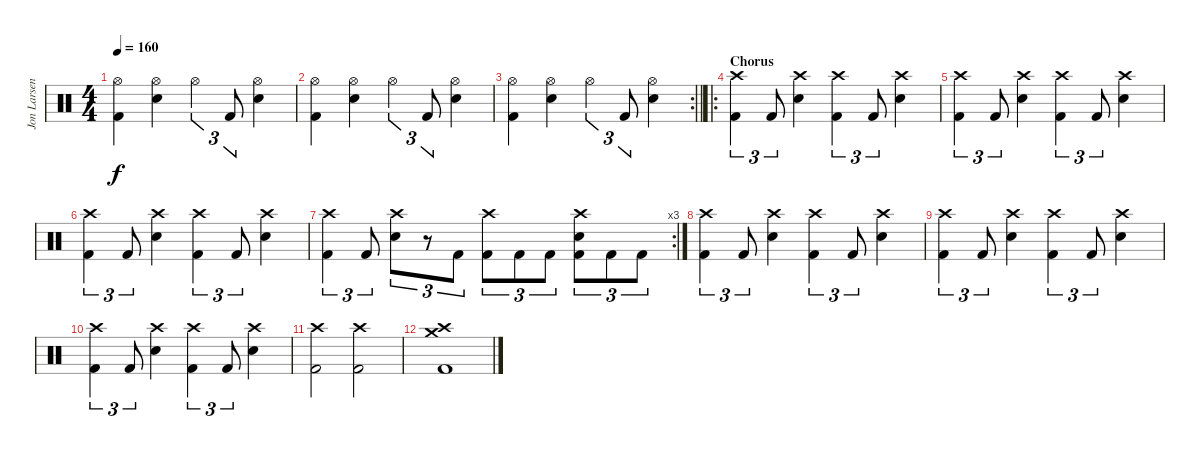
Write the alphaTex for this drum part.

\track ("Jon Larsen" "Jon Larsen") {instrument percussion}
\staff {score}
\articulation defaults
\ts (4 4)
\tempo 160
\clef neutral
\ks c
("Hi-Hat (open)" "Kick (hit) 2").4{dy f} ("Hi-Hat (open)" "Electric Snare (hit)").4 "Hi-Hat (open)".4{tu (3 2)} "Kick (hit) 2".8{tu (3 2)} ("Hi-Hat (open)" "Electric Snare (hit)").4 |
("Hi-Hat (open)" "Kick (hit) 2").4 ("Hi-Hat (open)" "Electric Snare (hit)").4 "Hi-Hat (open)".4{tu (3 2)} "Kick (hit) 2".8{tu (3 2)} ("Hi-Hat (open)" "Electric Snare (hit)").4 |
\rc 2
\barLineRight lightlight
("Hi-Hat (open)" "Kick (hit) 2").4 ("Hi-Hat (open)" "Electric Snare (hit)").4 "Hi-Hat (open)".4{tu (3 2)} "Kick (hit) 2".8{tu (3 2)} ("Hi-Hat (open)" "Electric Snare (hit)").4 |
\ro
\section ("" "Chorus")
("Crash high (hit)" "Kick (hit) 2").4{tu (3 2)} "Kick (hit) 2".8{tu (3 2)} ("Crash high (hit)" "Electric Snare (hit)").4 ("Crash high (hit)" "Kick (hit) 2").4{tu (3 2)} "Kick (hit) 2".8{tu (3 2)} ("Crash high (hit)" "Electric Snare (hit)").4 |
("Crash high (hit)" "Kick (hit) 2").4{tu (3 2)} "Kick (hit) 2".8{tu (3 2)} ("Crash high (hit)" "Electric Snare (hit)").4 ("Crash high (hit)" "Kick (hit) 2").4{tu (3 2)} "Kick (hit) 2".8{tu (3 2)} ("Crash high (hit)" "Electric Snare (hit)").4 |
("Crash high (hit)" "Kick (hit) 2").4{tu (3 2)} "Kick (hit) 2".8{tu (3 2)} ("Crash high (hit)" "Electric Snare (hit)").4 ("Crash high (hit)" "Kick (hit) 2").4{tu (3 2)} "Kick (hit) 2".8{tu (3 2)} ("Crash high (hit)" "Electric Snare (hit)").4 |
\rc 3
("Crash high (hit)" "Kick (hit) 2").4{tu (3 2)} "Kick (hit) 2".8{tu (3 2)} ("Crash high (hit)" "Electric Snare (hit)").8{tu (3 2)} r.8{tu (3 2)} "Kick (hit) 2".8{tu (3 2)} ("Crash high (hit)" "Kick (hit) 2").8{tu (3 2)} "Kick (hit) 2".8{tu (3 2)} "Kick (hit) 2".8{tu (3 2)} ("Crash high (hit)" "Electric Snare (hit)" "Kick (hit) 2").8{tu (3 2)} "Kick (hit) 2".8{tu (3 2)} "Kick (hit) 2".8{tu (3 2)} |
("Crash high (hit)" "Kick (hit) 2").4{tu (3 2)} "Kick (hit) 2".8{tu (3 2)} ("Crash high (hit)" "Electric Snare (hit)").4 ("Crash high (hit)" "Kick (hit) 2").4{tu (3 2)} "Kick (hit) 2".8{tu (3 2)} ("Crash high (hit)" "Electric Snare (hit)").4 |
("Crash high (hit)" "Kick (hit) 2").4{tu (3 2)} "Kick (hit) 2".8{tu (3 2)} ("Crash high (hit)" "Electric Snare (hit)").4 ("Crash high (hit)" "Kick (hit) 2").4{tu (3 2)} "Kick (hit) 2".8{tu (3 2)} ("Crash high (hit)" "Electric Snare (hit)").4 |
("Crash high (hit)" "Kick (hit) 2").4{tu (3 2)} "Kick (hit) 2".8{tu (3 2)} ("Crash high (hit)" "Electric Snare (hit)").4 ("Crash high (hit)" "Kick (hit) 2").4{tu (3 2)} "Kick (hit) 2".8{tu (3 2)} ("Crash high (hit)" "Electric Snare (hit)").4 |
("Crash high (hit)" "Kick (hit) 2").2 ("Crash high (hit)" "Kick (hit) 2").2 |
("Crash high (hit)" "Crash medium (hit)" "Kick (hit) 2").1
